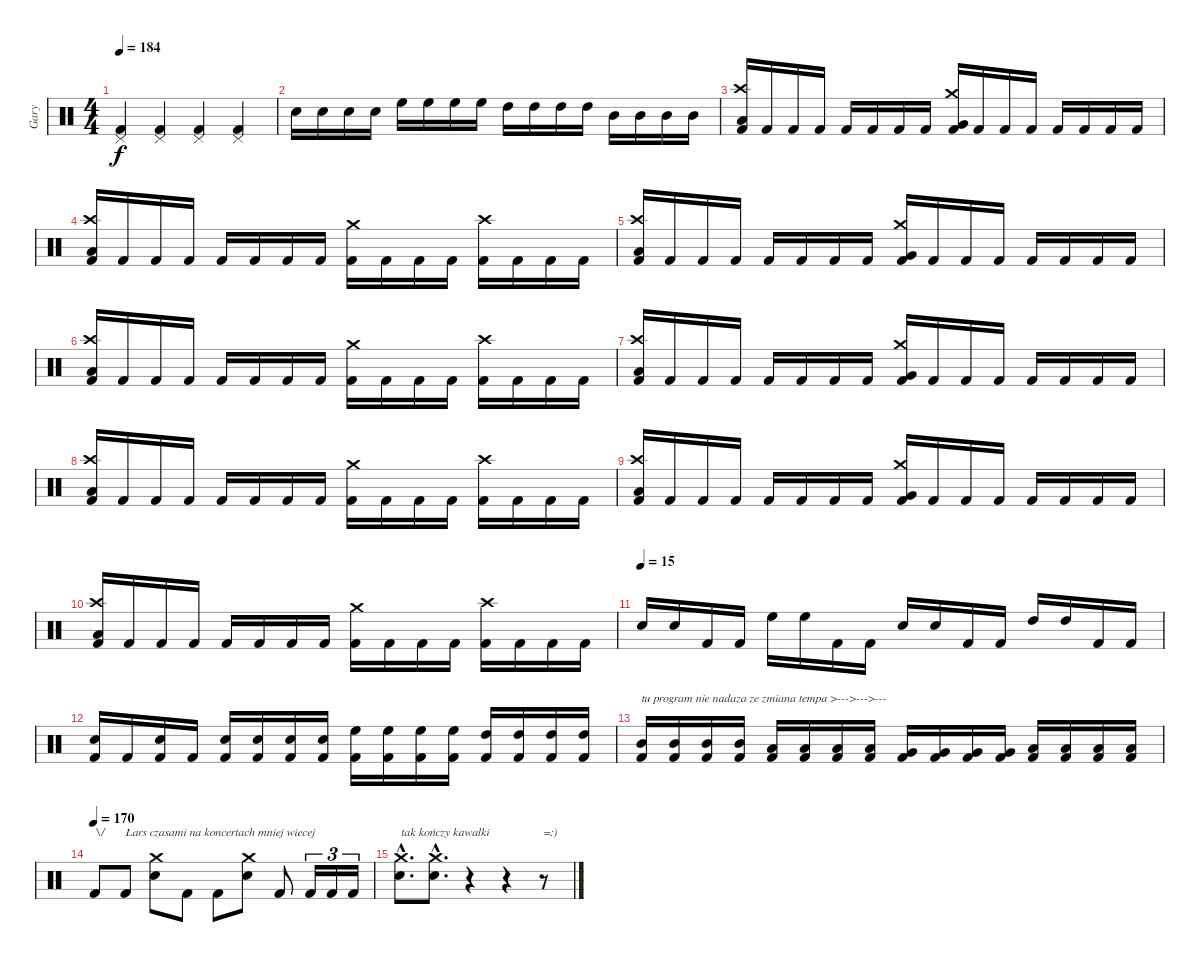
\track ("Gary" "Gary") {instrument percussion}
\staff {score}
\articulation defaults
\ts (4 4)
\tempo 184
\clef neutral
\ks c
("Pedal Hi-Hat (hit)" "Kick (hit) 2").4{dy f} ("Pedal Hi-Hat (hit)" "Kick (hit) 2").4 ("Pedal Hi-Hat (hit)" "Kick (hit) 2").4 ("Pedal Hi-Hat (hit)" "Kick (hit) 2").4 |
"Electric Snare (hit)".16 "Electric Snare (hit)".16 "Electric Snare (hit)".16 "Electric Snare (hit)".16 "High Floor Tom (hit)".16 "High Floor Tom (hit)".16 "High Floor Tom (hit)".16 "High Floor Tom (hit)".16 "High Tom (hit)".16 "High Tom (hit)".16 "High Tom (hit)".16 "High Tom (hit)".16 "Mid Tom (hit)".16 "Mid Tom (hit)".16 "Mid Tom (hit)".16 "Mid Tom (hit)".16 |
("Crash high (hit)" "Low Floor Tom (hit)" "Kick (hit) 2").16 "Kick (hit) 2".16 "Kick (hit) 2".16 "Kick (hit) 2".16 "Kick (hit) 2".16 "Kick (hit) 2".16 "Kick (hit) 2".16 "Kick (hit) 2".16 ("Crash medium (hit)" "Very Low Tom (hit)" "Kick (hit) 2").16 "Kick (hit) 2".16 "Kick (hit) 2".16 "Kick (hit) 2".16 "Kick (hit) 2".16 "Kick (hit) 2".16 "Kick (hit) 2".16 "Kick (hit) 2".16 |
("Crash high (hit)" "Low Floor Tom (hit)" "Kick (hit) 2").16 "Kick (hit) 2".16 "Kick (hit) 2".16 "Kick (hit) 2".16 "Kick (hit) 2".16 "Kick (hit) 2".16 "Kick (hit) 2".16 "Kick (hit) 2".16 ("Crash medium (hit)" "Kick (hit) 2").16 "Kick (hit) 2".16 "Kick (hit) 2".16 "Kick (hit) 2".16 ("Crash high (hit)" "Kick (hit) 2").16 "Kick (hit) 2".16 "Kick (hit) 2".16 "Kick (hit) 2".16 |
("Crash high (hit)" "Low Floor Tom (hit)" "Kick (hit) 2").16 "Kick (hit) 2".16 "Kick (hit) 2".16 "Kick (hit) 2".16 "Kick (hit) 2".16 "Kick (hit) 2".16 "Kick (hit) 2".16 "Kick (hit) 2".16 ("Crash medium (hit)" "Very Low Tom (hit)" "Kick (hit) 2").16 "Kick (hit) 2".16 "Kick (hit) 2".16 "Kick (hit) 2".16 "Kick (hit) 2".16 "Kick (hit) 2".16 "Kick (hit) 2".16 "Kick (hit) 2".16 |
("Crash high (hit)" "Low Floor Tom (hit)" "Kick (hit) 2").16 "Kick (hit) 2".16 "Kick (hit) 2".16 "Kick (hit) 2".16 "Kick (hit) 2".16 "Kick (hit) 2".16 "Kick (hit) 2".16 "Kick (hit) 2".16 ("Crash medium (hit)" "Kick (hit) 2").16 "Kick (hit) 2".16 "Kick (hit) 2".16 "Kick (hit) 2".16 ("Crash high (hit)" "Kick (hit) 2").16 "Kick (hit) 2".16 "Kick (hit) 2".16 "Kick (hit) 2".16 |
("Crash high (hit)" "Low Floor Tom (hit)" "Kick (hit) 2").16 "Kick (hit) 2".16 "Kick (hit) 2".16 "Kick (hit) 2".16 "Kick (hit) 2".16 "Kick (hit) 2".16 "Kick (hit) 2".16 "Kick (hit) 2".16 ("Crash medium (hit)" "Very Low Tom (hit)" "Kick (hit) 2").16 "Kick (hit) 2".16 "Kick (hit) 2".16 "Kick (hit) 2".16 "Kick (hit) 2".16 "Kick (hit) 2".16 "Kick (hit) 2".16 "Kick (hit) 2".16 |
("Crash high (hit)" "Low Floor Tom (hit)" "Kick (hit) 2").16 "Kick (hit) 2".16 "Kick (hit) 2".16 "Kick (hit) 2".16 "Kick (hit) 2".16 "Kick (hit) 2".16 "Kick (hit) 2".16 "Kick (hit) 2".16 ("Crash medium (hit)" "Kick (hit) 2").16 "Kick (hit) 2".16 "Kick (hit) 2".16 "Kick (hit) 2".16 ("Crash high (hit)" "Kick (hit) 2").16 "Kick (hit) 2".16 "Kick (hit) 2".16 "Kick (hit) 2".16 |
("Crash high (hit)" "Low Floor Tom (hit)" "Kick (hit) 2").16 "Kick (hit) 2".16 "Kick (hit) 2".16 "Kick (hit) 2".16 "Kick (hit) 2".16 "Kick (hit) 2".16 "Kick (hit) 2".16 "Kick (hit) 2".16 ("Crash medium (hit)" "Very Low Tom (hit)" "Kick (hit) 2").16 "Kick (hit) 2".16 "Kick (hit) 2".16 "Kick (hit) 2".16 "Kick (hit) 2".16 "Kick (hit) 2".16 "Kick (hit) 2".16 "Kick (hit) 2".16 |
("Crash high (hit)" "Low Floor Tom (hit)" "Kick (hit) 2").16 "Kick (hit) 2".16 "Kick (hit) 2".16 "Kick (hit) 2".16 "Kick (hit) 2".16 "Kick (hit) 2".16 "Kick (hit) 2".16 "Kick (hit) 2".16 ("Crash medium (hit)" "Kick (hit) 2").16 "Kick (hit) 2".16 "Kick (hit) 2".16 "Kick (hit) 2".16 ("Crash high (hit)" "Kick (hit) 2").16 "Kick (hit) 2".16 "Kick (hit) 2".16 "Kick (hit) 2".16 |
\tempo (15)
"Snare (hit) 2".16 "Snare (hit) 2".16 "Kick (hit) 2".16 "Kick (hit) 2".16 "High Floor Tom (hit)".16 "High Floor Tom (hit)".16 "Kick (hit) 2".16 "Kick (hit) 2".16 "Snare (hit) 2".16 "Snare (hit) 2".16 "Kick (hit) 2".16 "Kick (hit) 2".16 "High Tom (hit)".16 "High Tom (hit)".16 "Kick (hit) 2".16 "Kick (hit) 2".16 |
("Snare (hit) 2" "Kick (hit) 2").16 "Kick (hit) 2".16 ("Snare (hit) 2" "Kick (hit) 2").16 "Kick (hit) 2".16 ("Snare (hit) 2" "Kick (hit) 2").16 ("Snare (hit) 2" "Kick (hit) 2").16 ("Snare (hit) 2" "Kick (hit) 2").16 ("Snare (hit) 2" "Kick (hit) 2").16 ("High Floor Tom (hit)" "Kick (hit) 2").16 ("High Floor Tom (hit)" "Kick (hit) 2").16 ("High Floor Tom (hit)" "Kick (hit) 2").16 ("High Floor Tom (hit)" "Kick (hit) 2").16 ("High Tom (hit)" "Kick (hit) 2").16 ("High Tom (hit)" "Kick (hit) 2").16 ("High Tom (hit)" "Kick (hit) 2").16 ("High Tom (hit)" "Kick (hit) 2").16 |
("Mid Tom (hit)" "Kick (hit) 2").16{txt "tu program nie nadaza ze zmiana tempa >--->--->---"} ("Mid Tom (hit)" "Kick (hit) 2").16 ("Mid Tom (hit)" "Kick (hit) 2").16 ("Mid Tom (hit)" "Kick (hit) 2").16 ("Low Tom (hit)" "Kick (hit) 2").16 ("Low Tom (hit)" "Kick (hit) 2").16 ("Low Tom (hit)" "Kick (hit) 2").16 ("Low Tom (hit)" "Kick (hit) 2").16 ("Very Low Tom (hit)" "Kick (hit) 2").16 ("Very Low Tom (hit)" "Kick (hit) 2").16 ("Very Low Tom (hit)" "Kick (hit) 2").16 ("Very Low Tom (hit)" "Kick (hit) 2").16 ("Low Floor Tom (hit)" "Kick (hit) 2").16 ("Low Floor Tom (hit)" "Kick (hit) 2").16 ("Low Floor Tom (hit)" "Kick (hit) 2").16 ("Low Floor Tom (hit)" "Kick (hit) 2").16 |
\tempo (170)
"Kick (hit) 2".8{txt "\\/"} "Kick (hit) 2".8{txt "Lars czasami na koncertach mniej wiecej"} ("Crash medium (hit)" "Snare (hit) 2").8 "Kick (hit) 2".8 "Kick (hit) 2".8 ("Crash medium (hit)" "Snare (hit) 2").8 "Kick (hit) 2".8 "Kick (hit) 2".16{tu (3 2)} "Kick (hit) 2".16{tu (3 2)} "Kick (hit) 2".16{tu (3 2)} |
("Crash medium (hit)"{hac} "Snare (hit) 2"{hac}).8{d txt "tak kończy kawalki"} ("Crash medium (hit)"{hac} "Snare (hit) 2"{hac}).8{d} r.4 r.4 r.8{txt "=:)"}
